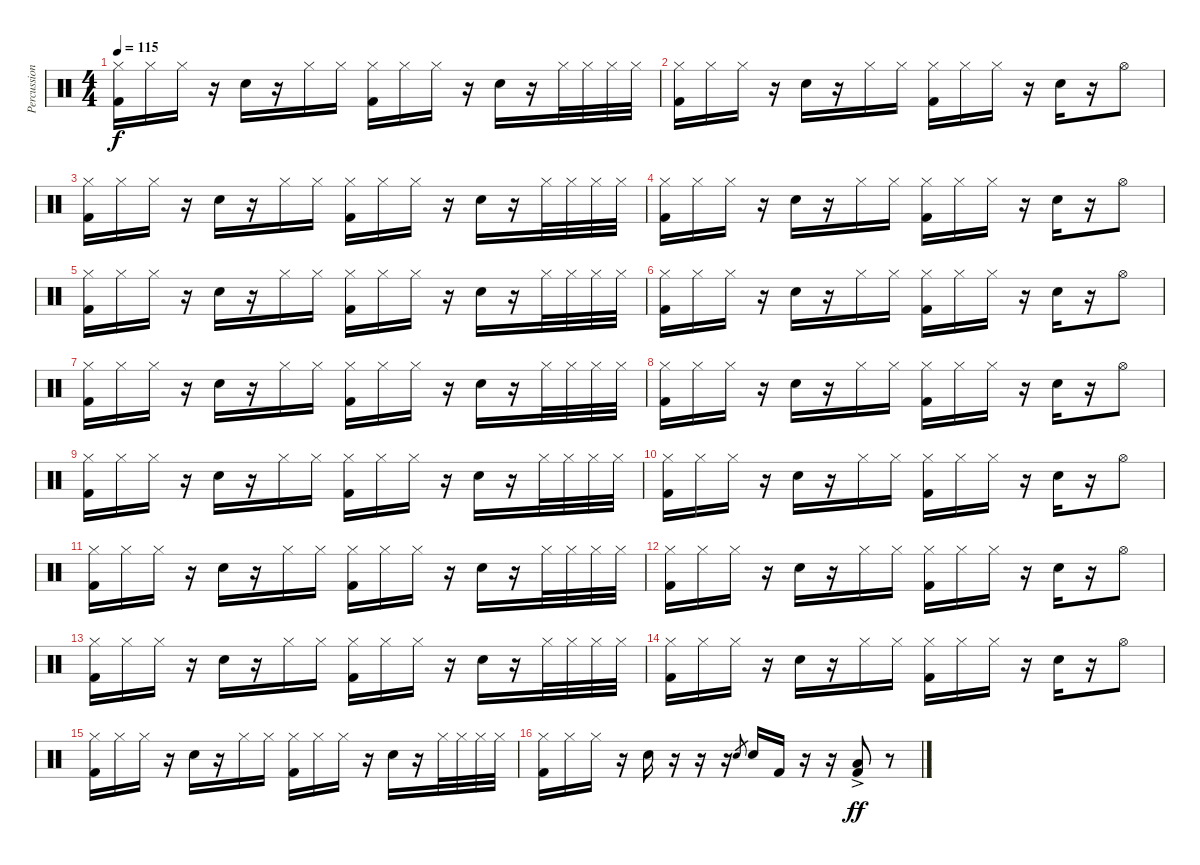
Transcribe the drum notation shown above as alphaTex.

\track ("Percussion" "Percussion") {instrument percussion}
\staff {score}
\articulation defaults
\ts (4 4)
\tempo 115
\clef neutral
\ks c
("Hi-Hat (closed)" "Kick (hit) 2").16{dy f} "Hi-Hat (closed)".16 "Hi-Hat (closed)".16 r.16 "Snare (hit) 2".16 r.16 "Hi-Hat (closed)".16 "Hi-Hat (closed)".16 ("Hi-Hat (closed)" "Kick (hit) 2").16 "Hi-Hat (closed)".16 "Hi-Hat (closed)".16 r.16 "Snare (hit) 2".16 r.16 "Hi-Hat (closed)".32 "Hi-Hat (closed)".32 "Hi-Hat (closed)".32 "Hi-Hat (closed)".32 |
("Hi-Hat (closed)" "Kick (hit) 2").16 "Hi-Hat (closed)".16 "Hi-Hat (closed)".16 r.16 "Snare (hit) 2".16 r.16 "Hi-Hat (closed)".16 "Hi-Hat (closed)".16 ("Hi-Hat (closed)" "Kick (hit) 2").16 "Hi-Hat (closed)".16 "Hi-Hat (closed)".16 r.16 "Snare (hit) 2".16 r.16 "Hi-Hat (open)".8 |
("Hi-Hat (closed)" "Kick (hit) 2").16 "Hi-Hat (closed)".16 "Hi-Hat (closed)".16 r.16 "Snare (hit) 2".16 r.16 "Hi-Hat (closed)".16 "Hi-Hat (closed)".16 ("Hi-Hat (closed)" "Kick (hit) 2").16 "Hi-Hat (closed)".16 "Hi-Hat (closed)".16 r.16 "Snare (hit) 2".16 r.16 "Hi-Hat (closed)".32 "Hi-Hat (closed)".32 "Hi-Hat (closed)".32 "Hi-Hat (closed)".32 |
("Hi-Hat (closed)" "Kick (hit) 2").16 "Hi-Hat (closed)".16 "Hi-Hat (closed)".16 r.16 "Snare (hit) 2".16 r.16 "Hi-Hat (closed)".16 "Hi-Hat (closed)".16 ("Hi-Hat (closed)" "Kick (hit) 2").16 "Hi-Hat (closed)".16 "Hi-Hat (closed)".16 r.16 "Snare (hit) 2".16 r.16 "Hi-Hat (open)".8 |
("Hi-Hat (closed)" "Kick (hit) 2").16 "Hi-Hat (closed)".16 "Hi-Hat (closed)".16 r.16 "Snare (hit) 2".16 r.16 "Hi-Hat (closed)".16 "Hi-Hat (closed)".16 ("Hi-Hat (closed)" "Kick (hit) 2").16 "Hi-Hat (closed)".16 "Hi-Hat (closed)".16 r.16 "Snare (hit) 2".16 r.16 "Hi-Hat (closed)".32 "Hi-Hat (closed)".32 "Hi-Hat (closed)".32 "Hi-Hat (closed)".32 |
("Hi-Hat (closed)" "Kick (hit) 2").16 "Hi-Hat (closed)".16 "Hi-Hat (closed)".16 r.16 "Snare (hit) 2".16 r.16 "Hi-Hat (closed)".16 "Hi-Hat (closed)".16 ("Hi-Hat (closed)" "Kick (hit) 2").16 "Hi-Hat (closed)".16 "Hi-Hat (closed)".16 r.16 "Snare (hit) 2".16 r.16 "Hi-Hat (open)".8 |
("Hi-Hat (closed)" "Kick (hit) 2").16 "Hi-Hat (closed)".16 "Hi-Hat (closed)".16 r.16 "Snare (hit) 2".16 r.16 "Hi-Hat (closed)".16 "Hi-Hat (closed)".16 ("Hi-Hat (closed)" "Kick (hit) 2").16 "Hi-Hat (closed)".16 "Hi-Hat (closed)".16 r.16 "Snare (hit) 2".16 r.16 "Hi-Hat (closed)".32 "Hi-Hat (closed)".32 "Hi-Hat (closed)".32 "Hi-Hat (closed)".32 |
("Hi-Hat (closed)" "Kick (hit) 2").16 "Hi-Hat (closed)".16 "Hi-Hat (closed)".16 r.16 "Snare (hit) 2".16 r.16 "Hi-Hat (closed)".16 "Hi-Hat (closed)".16 ("Hi-Hat (closed)" "Kick (hit) 2").16 "Hi-Hat (closed)".16 "Hi-Hat (closed)".16 r.16 "Snare (hit) 2".16 r.16 "Hi-Hat (open)".8 |
("Hi-Hat (closed)" "Kick (hit) 2").16 "Hi-Hat (closed)".16 "Hi-Hat (closed)".16 r.16 "Snare (hit) 2".16 r.16 "Hi-Hat (closed)".16 "Hi-Hat (closed)".16 ("Hi-Hat (closed)" "Kick (hit) 2").16 "Hi-Hat (closed)".16 "Hi-Hat (closed)".16 r.16 "Snare (hit) 2".16 r.16 "Hi-Hat (closed)".32 "Hi-Hat (closed)".32 "Hi-Hat (closed)".32 "Hi-Hat (closed)".32 |
("Hi-Hat (closed)" "Kick (hit) 2").16 "Hi-Hat (closed)".16 "Hi-Hat (closed)".16 r.16 "Snare (hit) 2".16 r.16 "Hi-Hat (closed)".16 "Hi-Hat (closed)".16 ("Hi-Hat (closed)" "Kick (hit) 2").16 "Hi-Hat (closed)".16 "Hi-Hat (closed)".16 r.16 "Snare (hit) 2".16 r.16 "Hi-Hat (open)".8 |
("Hi-Hat (closed)" "Kick (hit) 2").16 "Hi-Hat (closed)".16 "Hi-Hat (closed)".16 r.16 "Snare (hit) 2".16 r.16 "Hi-Hat (closed)".16 "Hi-Hat (closed)".16 ("Hi-Hat (closed)" "Kick (hit) 2").16 "Hi-Hat (closed)".16 "Hi-Hat (closed)".16 r.16 "Snare (hit) 2".16 r.16 "Hi-Hat (closed)".32 "Hi-Hat (closed)".32 "Hi-Hat (closed)".32 "Hi-Hat (closed)".32 |
("Hi-Hat (closed)" "Kick (hit) 2").16 "Hi-Hat (closed)".16 "Hi-Hat (closed)".16 r.16 "Snare (hit) 2".16 r.16 "Hi-Hat (closed)".16 "Hi-Hat (closed)".16 ("Hi-Hat (closed)" "Kick (hit) 2").16 "Hi-Hat (closed)".16 "Hi-Hat (closed)".16 r.16 "Snare (hit) 2".16 r.16 "Hi-Hat (open)".8 |
("Hi-Hat (closed)" "Kick (hit) 2").16 "Hi-Hat (closed)".16 "Hi-Hat (closed)".16 r.16 "Snare (hit) 2".16 r.16 "Hi-Hat (closed)".16 "Hi-Hat (closed)".16 ("Hi-Hat (closed)" "Kick (hit) 2").16 "Hi-Hat (closed)".16 "Hi-Hat (closed)".16 r.16 "Snare (hit) 2".16 r.16 "Hi-Hat (closed)".32 "Hi-Hat (closed)".32 "Hi-Hat (closed)".32 "Hi-Hat (closed)".32 |
("Hi-Hat (closed)" "Kick (hit) 2").16 "Hi-Hat (closed)".16 "Hi-Hat (closed)".16 r.16 "Snare (hit) 2".16 r.16 "Hi-Hat (closed)".16 "Hi-Hat (closed)".16 ("Hi-Hat (closed)" "Kick (hit) 2").16 "Hi-Hat (closed)".16 "Hi-Hat (closed)".16 r.16 "Snare (hit) 2".16 r.16 "Hi-Hat (open)".8 |
("Hi-Hat (closed)" "Kick (hit) 2").16 "Hi-Hat (closed)".16 "Hi-Hat (closed)".16 r.16 "Snare (hit) 2".16 r.16 "Hi-Hat (closed)".16 "Hi-Hat (closed)".16 ("Hi-Hat (closed)" "Kick (hit) 2").16 "Hi-Hat (closed)".16 "Hi-Hat (closed)".16 r.16 "Snare (hit) 2".16 r.16 "Hi-Hat (closed)".32 "Hi-Hat (closed)".32 "Hi-Hat (closed)".32 "Hi-Hat (closed)".32 |
("Hi-Hat (closed)" "Kick (hit) 2").16 "Hi-Hat (closed)".16 "Hi-Hat (closed)".16 r.16 "Snare (hit) 2".16 r.16 r.16 r.16 "Snare (hit) 2".8{gr} "Snare (hit) 2".16 "Kick (hit) 2".16 r.16 r.16 ("Low Floor Tom (hit)" "Kick (hit) 2"{ac}).8{dy ff} r.8
